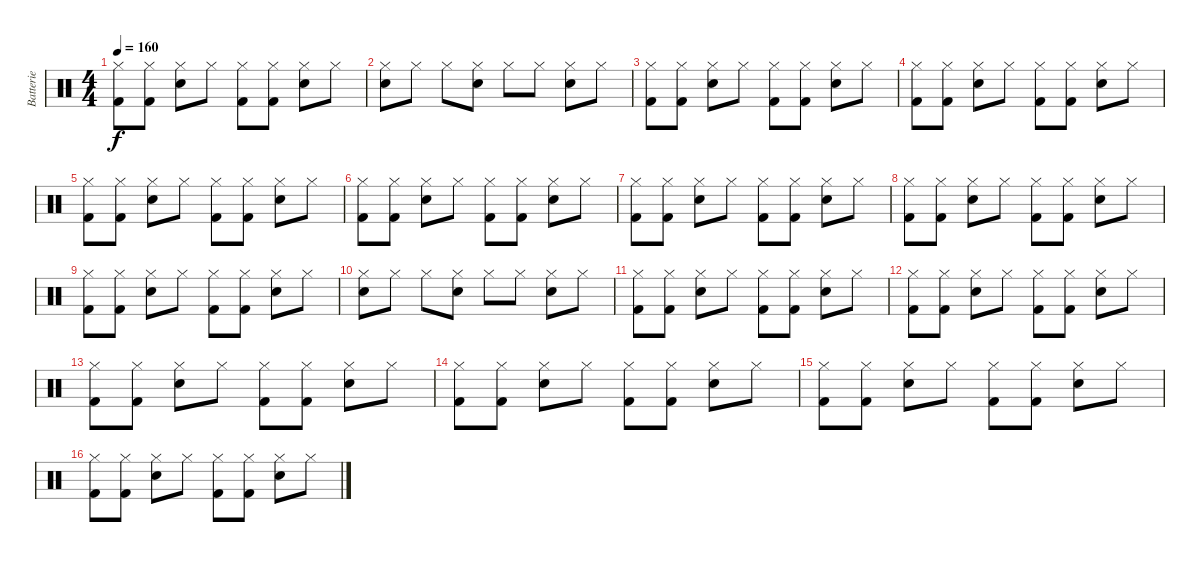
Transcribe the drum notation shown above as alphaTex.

\track ("Batterie" "Batterie") {instrument percussion}
\staff {score}
\articulation defaults
\ts (4 4)
\tempo 160
\clef neutral
\ks c
("Hi-Hat (closed)" "Kick (hit) 2").8{dy f} ("Hi-Hat (closed)" "Kick (hit) 2").8 ("Hi-Hat (closed)" "Electric Snare (hit)").8 "Hi-Hat (closed)".8 ("Hi-Hat (closed)" "Kick (hit) 2").8 ("Hi-Hat (closed)" "Kick (hit) 2").8 ("Hi-Hat (closed)" "Electric Snare (hit)").8 "Hi-Hat (closed)".8 |
("Hi-Hat (closed)" "Electric Snare (hit)").8 "Hi-Hat (closed)".8 "Hi-Hat (closed)".8 ("Hi-Hat (closed)" "Electric Snare (hit)").8 "Hi-Hat (closed)".8 "Hi-Hat (closed)".8 ("Hi-Hat (closed)" "Electric Snare (hit)").8 "Hi-Hat (closed)".8 |
("Hi-Hat (closed)" "Kick (hit) 2").8 ("Hi-Hat (closed)" "Kick (hit) 2").8 ("Hi-Hat (closed)" "Electric Snare (hit)").8 "Hi-Hat (closed)".8 ("Hi-Hat (closed)" "Kick (hit) 2").8 ("Hi-Hat (closed)" "Kick (hit) 2").8 ("Hi-Hat (closed)" "Electric Snare (hit)").8 "Hi-Hat (closed)".8 |
("Hi-Hat (closed)" "Kick (hit) 2").8 ("Hi-Hat (closed)" "Kick (hit) 2").8 ("Hi-Hat (closed)" "Electric Snare (hit)").8 "Hi-Hat (closed)".8 ("Hi-Hat (closed)" "Kick (hit) 2").8 ("Hi-Hat (closed)" "Kick (hit) 2").8 ("Hi-Hat (closed)" "Electric Snare (hit)").8 "Hi-Hat (closed)".8 |
("Hi-Hat (closed)" "Kick (hit) 2").8 ("Hi-Hat (closed)" "Kick (hit) 2").8 ("Hi-Hat (closed)" "Electric Snare (hit)").8 "Hi-Hat (closed)".8 ("Hi-Hat (closed)" "Kick (hit) 2").8 ("Hi-Hat (closed)" "Kick (hit) 2").8 ("Hi-Hat (closed)" "Electric Snare (hit)").8 "Hi-Hat (closed)".8 |
("Hi-Hat (closed)" "Kick (hit) 2").8 ("Hi-Hat (closed)" "Kick (hit) 2").8 ("Hi-Hat (closed)" "Electric Snare (hit)").8 "Hi-Hat (closed)".8 ("Hi-Hat (closed)" "Kick (hit) 2").8 ("Hi-Hat (closed)" "Kick (hit) 2").8 ("Hi-Hat (closed)" "Electric Snare (hit)").8 "Hi-Hat (closed)".8 |
("Hi-Hat (closed)" "Kick (hit) 2").8 ("Hi-Hat (closed)" "Kick (hit) 2").8 ("Hi-Hat (closed)" "Electric Snare (hit)").8 "Hi-Hat (closed)".8 ("Hi-Hat (closed)" "Kick (hit) 2").8 ("Hi-Hat (closed)" "Kick (hit) 2").8 ("Hi-Hat (closed)" "Electric Snare (hit)").8 "Hi-Hat (closed)".8 |
("Hi-Hat (closed)" "Kick (hit) 2").8 ("Hi-Hat (closed)" "Kick (hit) 2").8 ("Hi-Hat (closed)" "Electric Snare (hit)").8 "Hi-Hat (closed)".8 ("Hi-Hat (closed)" "Kick (hit) 2").8 ("Hi-Hat (closed)" "Kick (hit) 2").8 ("Hi-Hat (closed)" "Electric Snare (hit)").8 "Hi-Hat (closed)".8 |
("Hi-Hat (closed)" "Kick (hit) 2").8 ("Hi-Hat (closed)" "Kick (hit) 2").8 ("Hi-Hat (closed)" "Electric Snare (hit)").8 "Hi-Hat (closed)".8 ("Hi-Hat (closed)" "Kick (hit) 2").8 ("Hi-Hat (closed)" "Kick (hit) 2").8 ("Hi-Hat (closed)" "Electric Snare (hit)").8 "Hi-Hat (closed)".8 |
("Hi-Hat (closed)" "Electric Snare (hit)").8 "Hi-Hat (closed)".8 "Hi-Hat (closed)".8 ("Hi-Hat (closed)" "Electric Snare (hit)").8 "Hi-Hat (closed)".8 "Hi-Hat (closed)".8 ("Hi-Hat (closed)" "Electric Snare (hit)").8 "Hi-Hat (closed)".8 |
("Hi-Hat (closed)" "Kick (hit) 2").8 ("Hi-Hat (closed)" "Kick (hit) 2").8 ("Hi-Hat (closed)" "Electric Snare (hit)").8 "Hi-Hat (closed)".8 ("Hi-Hat (closed)" "Kick (hit) 2").8 ("Hi-Hat (closed)" "Kick (hit) 2").8 ("Hi-Hat (closed)" "Electric Snare (hit)").8 "Hi-Hat (closed)".8 |
("Hi-Hat (closed)" "Kick (hit) 2").8 ("Hi-Hat (closed)" "Kick (hit) 2").8 ("Hi-Hat (closed)" "Electric Snare (hit)").8 "Hi-Hat (closed)".8 ("Hi-Hat (closed)" "Kick (hit) 2").8 ("Hi-Hat (closed)" "Kick (hit) 2").8 ("Hi-Hat (closed)" "Electric Snare (hit)").8 "Hi-Hat (closed)".8 |
("Hi-Hat (closed)" "Kick (hit) 2").8 ("Hi-Hat (closed)" "Kick (hit) 2").8 ("Hi-Hat (closed)" "Electric Snare (hit)").8 "Hi-Hat (closed)".8 ("Hi-Hat (closed)" "Kick (hit) 2").8 ("Hi-Hat (closed)" "Kick (hit) 2").8 ("Hi-Hat (closed)" "Electric Snare (hit)").8 "Hi-Hat (closed)".8 |
("Hi-Hat (closed)" "Kick (hit) 2").8 ("Hi-Hat (closed)" "Kick (hit) 2").8 ("Hi-Hat (closed)" "Electric Snare (hit)").8 "Hi-Hat (closed)".8 ("Hi-Hat (closed)" "Kick (hit) 2").8 ("Hi-Hat (closed)" "Kick (hit) 2").8 ("Hi-Hat (closed)" "Electric Snare (hit)").8 "Hi-Hat (closed)".8 |
("Hi-Hat (closed)" "Kick (hit) 2").8 ("Hi-Hat (closed)" "Kick (hit) 2").8 ("Hi-Hat (closed)" "Electric Snare (hit)").8 "Hi-Hat (closed)".8 ("Hi-Hat (closed)" "Kick (hit) 2").8 ("Hi-Hat (closed)" "Kick (hit) 2").8 ("Hi-Hat (closed)" "Electric Snare (hit)").8 "Hi-Hat (closed)".8 |
("Hi-Hat (closed)" "Kick (hit) 2").8 ("Hi-Hat (closed)" "Kick (hit) 2").8 ("Hi-Hat (closed)" "Electric Snare (hit)").8 "Hi-Hat (closed)".8 ("Hi-Hat (closed)" "Kick (hit) 2").8 ("Hi-Hat (closed)" "Kick (hit) 2").8 ("Hi-Hat (closed)" "Electric Snare (hit)").8 "Hi-Hat (closed)".8
